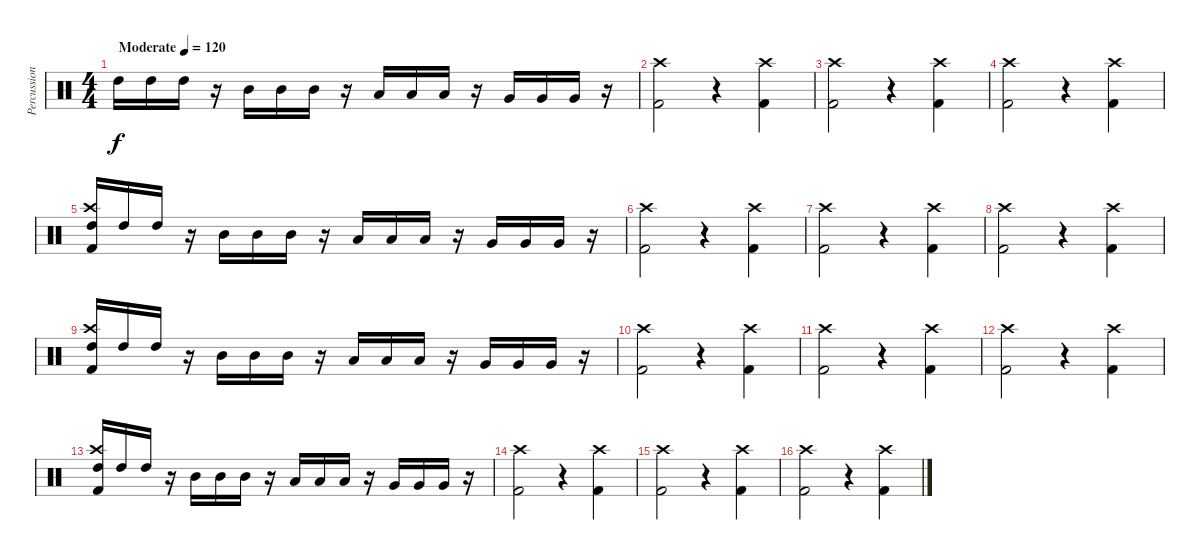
\track ("Percussion" "Percussion") {instrument percussion}
\staff
\articulation defaults
\ts (4 4)
\tempo (120 "Moderate")
\clef neutral
\ks c "High Tom (hit)".16{dy f} "High Tom (hit)".16 "High Tom (hit)".16
r.16 "Mid Tom (hit)".16 "Mid Tom (hit)".16 "Mid Tom (hit)".16 r.16 "Low Tom (hit)".16 "Low Tom (hit)".16 "Low Tom (hit)".16 r.16 "Very Low Tom (hit)".16 "Very Low Tom (hit)".16 "Very Low Tom (hit)".16 r.16 |
("Crash high (hit)" "Kick (hit) 2").2 r.4 ("Crash high (hit)" "Kick (hit) 2").4 |
("Crash high (hit)" "Kick (hit) 2").2 r.4 ("Crash high (hit)" "Kick (hit) 2").4 |
("Crash high (hit)" "Kick (hit) 2").2 r.4 ("Crash high (hit)" "Kick (hit) 2").4 |
("High Tom (hit)" "Crash high (hit)" "Kick (hit) 2").16 "High Tom (hit)".16 "High Tom (hit)".16 r.16 "Mid Tom (hit)".16 "Mid Tom (hit)".16 "Mid Tom (hit)".16 r.16 "Low Tom (hit)".16 "Low Tom (hit)".16 "Low Tom (hit)".16 r.16 "Very Low Tom (hit)".16 "Very Low Tom (hit)".16 "Very Low Tom (hit)".16 r.16 |
("Crash high (hit)" "Kick (hit) 2").2 r.4 ("Crash high (hit)" "Kick (hit) 2").4 |
("Crash high (hit)" "Kick (hit) 2").2 r.4 ("Crash high (hit)" "Kick (hit) 2").4 |
("Crash high (hit)" "Kick (hit) 2").2 r.4 ("Crash high (hit)" "Kick (hit) 2").4 |
("High Tom (hit)" "Crash high (hit)" "Kick (hit) 2").16 "High Tom (hit)".16 "High Tom (hit)".16 r.16 "Mid Tom (hit)".16 "Mid Tom (hit)".16 "Mid Tom (hit)".16 r.16 "Low Tom (hit)".16 "Low Tom (hit)".16 "Low Tom (hit)".16 r.16 "Very Low Tom (hit)".16 "Very Low Tom (hit)".16 "Very Low Tom (hit)".16 r.16 |
("Crash high (hit)" "Kick (hit) 2").2 r.4 ("Crash high (hit)" "Kick (hit) 2").4 |
("Crash high (hit)" "Kick (hit) 2").2 r.4 ("Crash high (hit)" "Kick (hit) 2").4 |
("Crash high (hit)" "Kick (hit) 2").2 r.4 ("Crash high (hit)" "Kick (hit) 2").4 |
("High Tom (hit)" "Crash high (hit)" "Kick (hit) 2").16 "High Tom (hit)".16 "High Tom (hit)".16 r.16 "Mid Tom (hit)".16 "Mid Tom (hit)".16 "Mid Tom (hit)".16 r.16 "Low Tom (hit)".16 "Low Tom (hit)".16 "Low Tom (hit)".16 r.16 "Very Low Tom (hit)".16 "Very Low Tom (hit)".16 "Very Low Tom (hit)".16 r.16 |
("Crash high (hit)" "Kick (hit) 2").2 r.4 ("Crash high (hit)" "Kick (hit) 2").4 |
("Crash high (hit)" "Kick (hit) 2").2 r.4 ("Crash high (hit)" "Kick (hit) 2").4 |
("Crash high (hit)" "Kick (hit) 2").2 r.4 ("Crash high (hit)" "Kick (hit) 2").4
